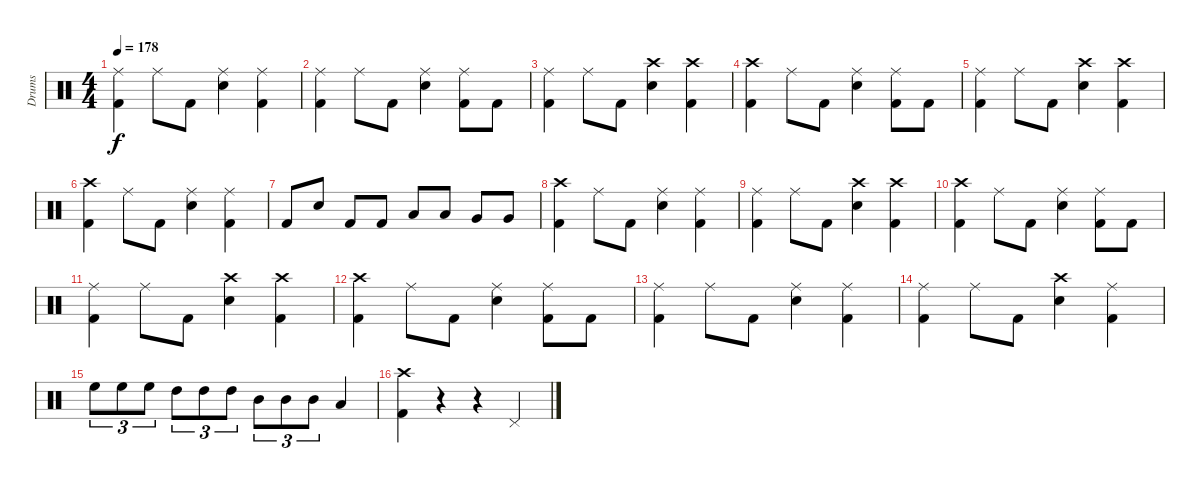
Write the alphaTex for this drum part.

\track ("Drums" "Drums") {instrument percussion}
\staff {score}
\articulation defaults
\ts (4 4)
\tempo 178
\clef neutral
\ks c
("Ride (middle)" "Kick (hit) 2").4{dy f} "Ride (middle)".8 "Kick (hit) 2".8 ("Ride (middle)" "Electric Snare (hit)").4 ("Ride (middle)" "Kick (hit) 2").4 |
("Ride (middle)" "Kick (hit) 2").4 "Ride (middle)".8 "Kick (hit) 2".8 ("Ride (middle)" "Electric Snare (hit)").4 ("Ride (middle)" "Kick (hit) 2").8 "Kick (hit) 2".8 |
("Ride (middle)" "Kick (hit) 2").4 "Ride (middle)".8 "Kick (hit) 2".8 ("Crash high (hit)" "Electric Snare (hit)").4 ("Crash high (hit)" "Kick (hit) 2").4 |
("Crash high (hit)" "Kick (hit) 2").4 "Ride (middle)".8 "Kick (hit) 2".8 ("Ride (middle)" "Electric Snare (hit)").4 ("Ride (middle)" "Kick (hit) 2").8 "Kick (hit) 2".8 |
("Ride (middle)" "Kick (hit) 2").4 "Ride (middle)".8 "Kick (hit) 2".8 ("Crash high (hit)" "Electric Snare (hit)").4 ("Crash high (hit)" "Kick (hit) 2").4 |
("Crash high (hit)" "Kick (hit) 2").4 "Ride (middle)".8 "Kick (hit) 2".8 ("Ride (middle)" "Electric Snare (hit)").4 ("Ride (middle)" "Kick (hit) 2").4 |
"Kick (hit) 2".8 "Electric Snare (hit)".8 "Kick (hit) 2".8 "Kick (hit) 2".8 "Low Tom (hit)".8 "Low Tom (hit)".8 "Very Low Tom (hit)".8 "Very Low Tom (hit)".8 |
("Crash high (hit)" "Kick (hit) 2").4 "Ride (middle)".8 "Kick (hit) 2".8 ("Ride (middle)" "Electric Snare (hit)").4 ("Ride (middle)" "Kick (hit) 2").4 |
("Ride (middle)" "Kick (hit) 2").4 "Ride (middle)".8 "Kick (hit) 2".8 ("Crash high (hit)" "Electric Snare (hit)").4 ("Crash high (hit)" "Kick (hit) 2").4 |
("Crash high (hit)" "Kick (hit) 2").4 "Ride (middle)".8 "Kick (hit) 2".8 ("Ride (middle)" "Electric Snare (hit)").4 ("Ride (middle)" "Kick (hit) 2").8 "Kick (hit) 2".8 |
("Ride (middle)" "Kick (hit) 2").4 "Ride (middle)".8 "Kick (hit) 2".8 ("Crash high (hit)" "Electric Snare (hit)").4 ("Crash high (hit)" "Kick (hit) 2").4 |
("Crash high (hit)" "Kick (hit) 2").4 "Ride (middle)".8 "Kick (hit) 2".8 ("Ride (middle)" "Electric Snare (hit)").4 ("Ride (middle)" "Kick (hit) 2").8 "Kick (hit) 2".8 |
("Ride (middle)" "Kick (hit) 2").4 "Ride (middle)".8 "Kick (hit) 2".8 ("Ride (middle)" "Electric Snare (hit)").4 ("Ride (middle)" "Kick (hit) 2").4 |
("Ride (middle)" "Kick (hit) 2").4 "Ride (middle)".8 "Kick (hit) 2".8 ("Crash high (hit)" "Electric Snare (hit)").4 ("Ride (middle)" "Kick (hit) 2").4 |
"High Floor Tom (hit)".8{tu (3 2)} "High Floor Tom (hit)".8{tu (3 2)} "High Floor Tom (hit)".8{tu (3 2)} "High Tom (hit)".8{tu (3 2)} "High Tom (hit)".8{tu (3 2)} "High Tom (hit)".8{tu (3 2)} "Mid Tom (hit)".8{tu (3 2)} "Mid Tom (hit)".8{tu (3 2)} "Mid Tom (hit)".8{tu (3 2)} "Low Tom (hit)".4 |
("Crash high (hit)" "Kick (hit) 2").4 r.4 r.4 "Pedal Hi-Hat (hit)".4
